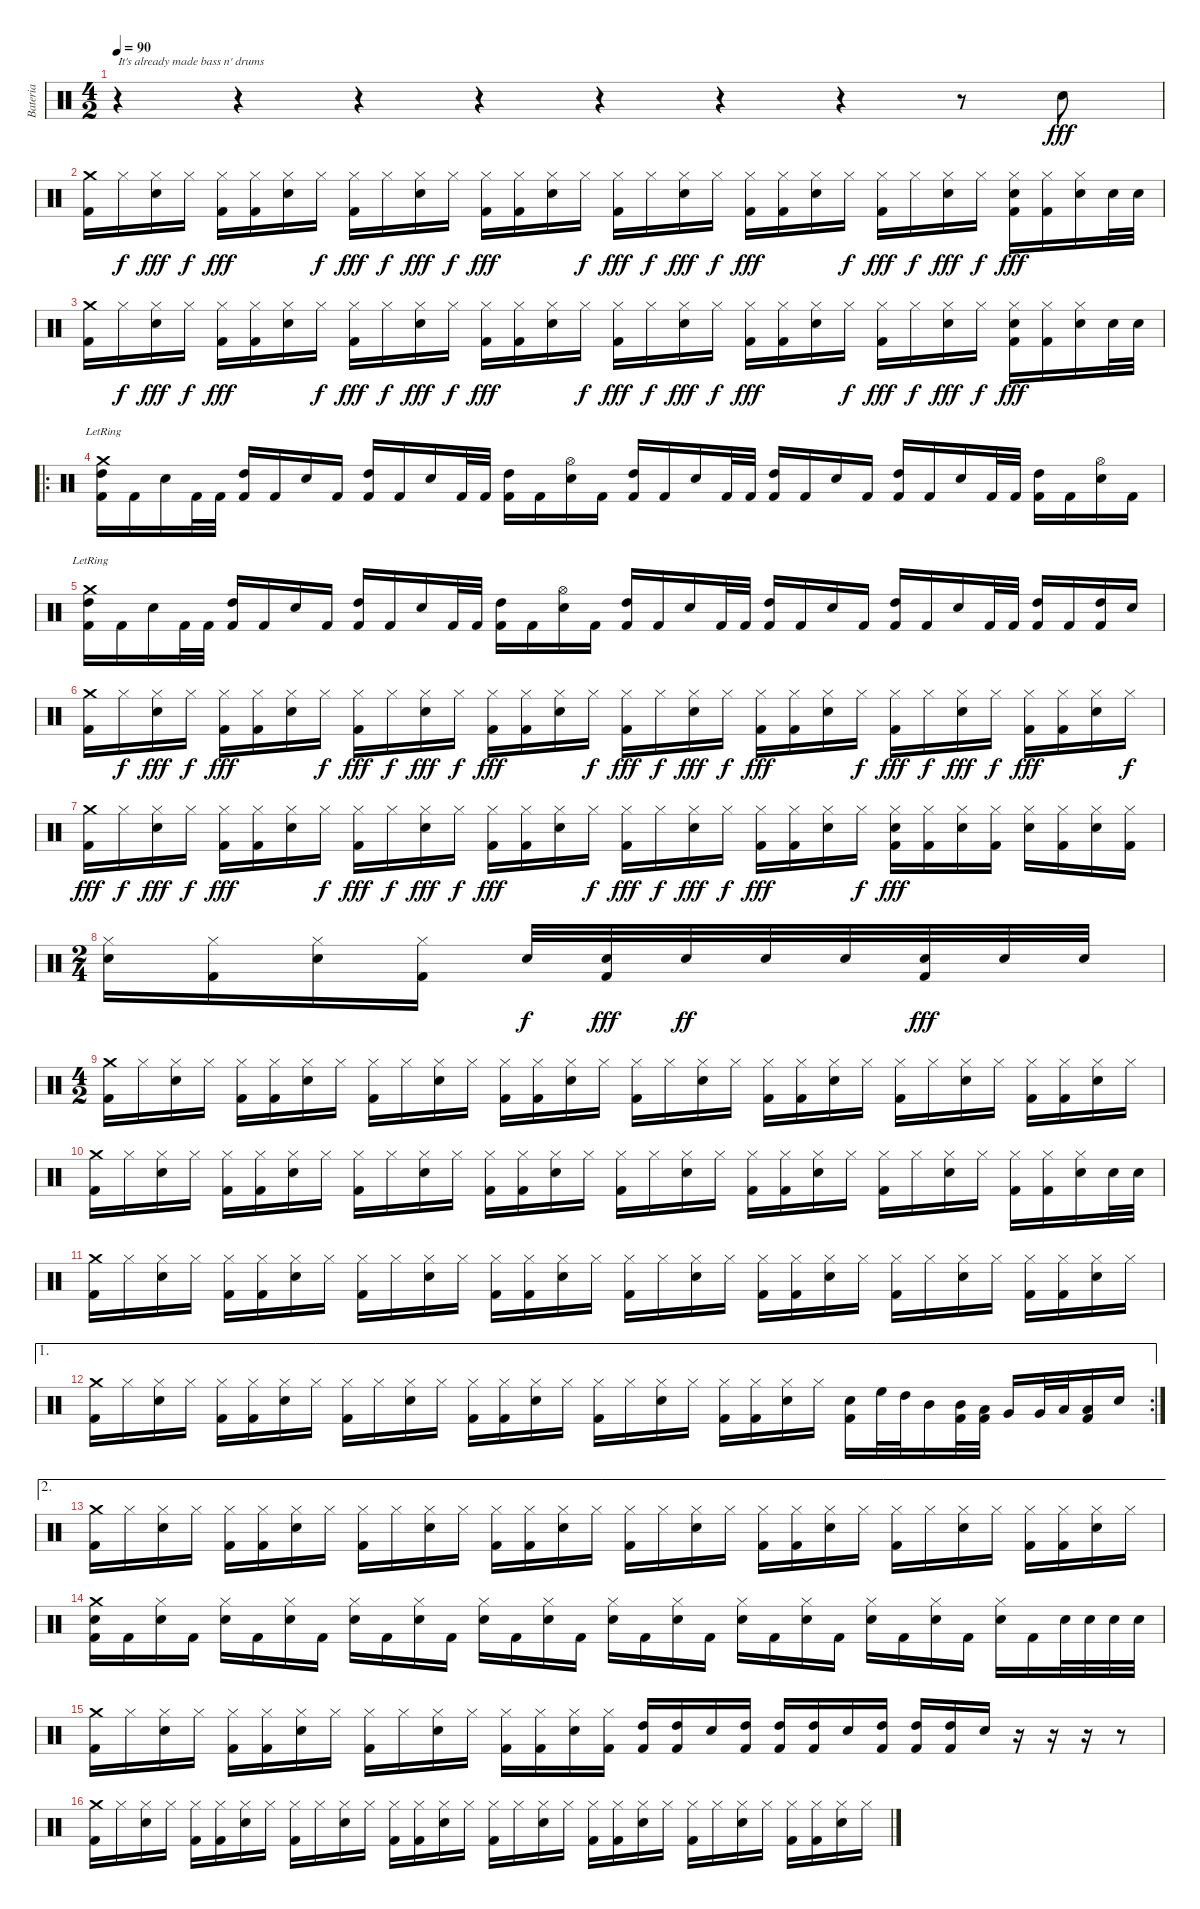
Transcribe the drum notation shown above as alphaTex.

\track ("Bateria" "Bateria") {instrument percussion}
\staff {score}
\articulation defaults
\ts (4 2)
\tempo 90
\clef neutral
\ks c
r.4{txt "It's already made bass n' drums" dy fff} r.4 r.4 r.4 r.4 r.4 r.4 r.8 "Electric Snare (hit)".8 |
("Crash medium (hit)" "Kick (hit) 2").16 "Hi-Hat (closed)".16{dy f} ("Hi-Hat (closed)" "Electric Snare (hit)").16{dy fff} "Hi-Hat (closed)".16{dy f} ("Hi-Hat (closed)" "Kick (hit) 2").16{dy fff} ("Hi-Hat (closed)" "Kick (hit) 2").16 ("Hi-Hat (closed)" "Electric Snare (hit)").16 "Hi-Hat (closed)".16{dy f} ("Hi-Hat (closed)" "Kick (hit) 2").16{dy fff} "Hi-Hat (closed)".16{dy f} ("Hi-Hat (closed)" "Electric Snare (hit)").16{dy fff} "Hi-Hat (closed)".16{dy f} ("Hi-Hat (closed)" "Kick (hit) 2").16{dy fff} ("Hi-Hat (closed)" "Kick (hit) 2").16 ("Hi-Hat (closed)" "Electric Snare (hit)").16 "Hi-Hat (closed)".16{dy f} ("Hi-Hat (closed)" "Kick (hit) 2").16{dy fff} "Hi-Hat (closed)".16{dy f} ("Hi-Hat (closed)" "Electric Snare (hit)").16{dy fff} "Hi-Hat (closed)".16{dy f} ("Hi-Hat (closed)" "Kick (hit) 2").16{dy fff} ("Hi-Hat (closed)" "Kick (hit) 2").16 ("Hi-Hat (closed)" "Electric Snare (hit)").16 "Hi-Hat (closed)".16{dy f} ("Hi-Hat (closed)" "Kick (hit) 2").16{dy fff} "Hi-Hat (closed)".16{dy f} ("Hi-Hat (closed)" "Electric Snare (hit)").16{dy fff} "Hi-Hat (closed)".16{dy f} ("Hi-Hat (closed)" "Electric Snare (hit)" "Kick (hit) 2").16{dy fff} ("Hi-Hat (closed)" "Kick (hit) 2").16 ("Hi-Hat (closed)" "Electric Snare (hit)").16 "Electric Snare (hit)".32 "Electric Snare (hit)".32 |
("Crash medium (hit)" "Kick (hit) 2").16 "Hi-Hat (closed)".16{dy f} ("Hi-Hat (closed)" "Electric Snare (hit)").16{dy fff} "Hi-Hat (closed)".16{dy f} ("Hi-Hat (closed)" "Kick (hit) 2").16{dy fff} ("Hi-Hat (closed)" "Kick (hit) 2").16 ("Hi-Hat (closed)" "Electric Snare (hit)").16 "Hi-Hat (closed)".16{dy f} ("Hi-Hat (closed)" "Kick (hit) 2").16{dy fff} "Hi-Hat (closed)".16{dy f} ("Hi-Hat (closed)" "Electric Snare (hit)").16{dy fff} "Hi-Hat (closed)".16{dy f} ("Hi-Hat (closed)" "Kick (hit) 2").16{dy fff} ("Hi-Hat (closed)" "Kick (hit) 2").16 ("Hi-Hat (closed)" "Electric Snare (hit)").16 "Hi-Hat (closed)".16{dy f} ("Hi-Hat (closed)" "Kick (hit) 2").16{dy fff} "Hi-Hat (closed)".16{dy f} ("Hi-Hat (closed)" "Electric Snare (hit)").16{dy fff} "Hi-Hat (closed)".16{dy f} ("Hi-Hat (closed)" "Kick (hit) 2").16{dy fff} ("Hi-Hat (closed)" "Kick (hit) 2").16 ("Hi-Hat (closed)" "Electric Snare (hit)").16 "Hi-Hat (closed)".16{dy f} ("Hi-Hat (closed)" "Kick (hit) 2").16{dy fff} "Hi-Hat (closed)".16{dy f} ("Hi-Hat (closed)" "Electric Snare (hit)").16{dy fff} "Hi-Hat (closed)".16{dy f} ("Hi-Hat (closed)" "Electric Snare (hit)" "Kick (hit) 2").16{dy fff} ("Hi-Hat (closed)" "Kick (hit) 2").16 ("Hi-Hat (closed)" "Electric Snare (hit)").16 "Electric Snare (hit)".32 "Electric Snare (hit)".32 |
\ro
("Crash medium (hit)"{lr} "High Tom (hit)" "Kick (hit) 2").16 "Kick (hit) 2".16 "Electric Snare (hit)".16 "Kick (hit) 2".32 "Kick (hit) 2".32 ("High Tom (hit)" "Kick (hit) 2").16 "Kick (hit) 2".16 "Electric Snare (hit)".16 "Kick (hit) 2".16 ("High Tom (hit)" "Kick (hit) 2").16 "Kick (hit) 2".16 "Electric Snare (hit)".16 "Kick (hit) 2".32 "Kick (hit) 2".32 ("High Tom (hit)" "Kick (hit) 2").16 "Kick (hit) 2".16 ("Hi-Hat (open)" "Electric Snare (hit)").16 "Kick (hit) 2".16 ("High Tom (hit)" "Kick (hit) 2").16 "Kick (hit) 2".16 "Electric Snare (hit)".16 "Kick (hit) 2".32 "Kick (hit) 2".32 ("High Tom (hit)" "Kick (hit) 2").16 "Kick (hit) 2".16 "Electric Snare (hit)".16 "Kick (hit) 2".16 ("High Tom (hit)" "Kick (hit) 2").16 "Kick (hit) 2".16 "Electric Snare (hit)".16 "Kick (hit) 2".32 "Kick (hit) 2".32 ("High Tom (hit)" "Kick (hit) 2").16 "Kick (hit) 2".16 ("Hi-Hat (open)" "Electric Snare (hit)").16 "Kick (hit) 2".16 |
("Crash medium (hit)"{lr} "High Tom (hit)" "Kick (hit) 2").16 "Kick (hit) 2".16 "Electric Snare (hit)".16 "Kick (hit) 2".32 "Kick (hit) 2".32 ("High Tom (hit)" "Kick (hit) 2").16 "Kick (hit) 2".16 "Electric Snare (hit)".16 "Kick (hit) 2".16 ("High Tom (hit)" "Kick (hit) 2").16 "Kick (hit) 2".16 "Electric Snare (hit)".16 "Kick (hit) 2".32 "Kick (hit) 2".32 ("High Tom (hit)" "Kick (hit) 2").16 "Kick (hit) 2".16 ("Hi-Hat (open)" "Electric Snare (hit)").16 "Kick (hit) 2".16 ("High Tom (hit)" "Kick (hit) 2").16 "Kick (hit) 2".16 "Electric Snare (hit)".16 "Kick (hit) 2".32 "Kick (hit) 2".32 ("High Tom (hit)" "Kick (hit) 2").16 "Kick (hit) 2".16 "Electric Snare (hit)".16 "Kick (hit) 2".16 ("High Tom (hit)" "Kick (hit) 2").16 "Kick (hit) 2".16 "Electric Snare (hit)".16 "Kick (hit) 2".32 "Kick (hit) 2".32 ("High Tom (hit)" "Kick (hit) 2").16 "Kick (hit) 2".16 ("High Tom (hit)" "Kick (hit) 2").16 "Electric Snare (hit)".16 |
("Crash medium (hit)" "Kick (hit) 2").16 "Hi-Hat (closed)".16{dy f} ("Hi-Hat (closed)" "Electric Snare (hit)").16{dy fff} "Hi-Hat (closed)".16{dy f} ("Hi-Hat (closed)" "Kick (hit) 2").16{dy fff} ("Hi-Hat (closed)" "Kick (hit) 2").16 ("Hi-Hat (closed)" "Electric Snare (hit)").16 "Hi-Hat (closed)".16{dy f} ("Hi-Hat (closed)" "Kick (hit) 2").16{dy fff} "Hi-Hat (closed)".16{dy f} ("Hi-Hat (closed)" "Electric Snare (hit)").16{dy fff} "Hi-Hat (closed)".16{dy f} ("Hi-Hat (closed)" "Kick (hit) 2").16{dy fff} ("Hi-Hat (closed)" "Kick (hit) 2").16 ("Hi-Hat (closed)" "Electric Snare (hit)").16 "Hi-Hat (closed)".16{dy f} ("Hi-Hat (closed)" "Kick (hit) 2").16{dy fff} "Hi-Hat (closed)".16{dy f} ("Hi-Hat (closed)" "Electric Snare (hit)").16{dy fff} "Hi-Hat (closed)".16{dy f} ("Hi-Hat (closed)" "Kick (hit) 2").16{dy fff} ("Hi-Hat (closed)" "Kick (hit) 2").16 ("Hi-Hat (closed)" "Electric Snare (hit)").16 "Hi-Hat (closed)".16{dy f} ("Hi-Hat (closed)" "Kick (hit) 2").16{dy fff} "Hi-Hat (closed)".16{dy f} ("Hi-Hat (closed)" "Electric Snare (hit)").16{dy fff} "Hi-Hat (closed)".16{dy f} ("Hi-Hat (closed)" "Kick (hit) 2").16{dy fff} ("Hi-Hat (closed)" "Kick (hit) 2").16 ("Hi-Hat (closed)" "Electric Snare (hit)").16 "Hi-Hat (closed)".16{dy f} |
("Crash medium (hit)" "Kick (hit) 2").16{dy fff} "Hi-Hat (closed)".16{dy f} ("Hi-Hat (closed)" "Electric Snare (hit)").16{dy fff} "Hi-Hat (closed)".16{dy f} ("Hi-Hat (closed)" "Kick (hit) 2").16{dy fff} ("Hi-Hat (closed)" "Kick (hit) 2").16 ("Hi-Hat (closed)" "Electric Snare (hit)").16 "Hi-Hat (closed)".16{dy f} ("Hi-Hat (closed)" "Kick (hit) 2").16{dy fff} "Hi-Hat (closed)".16{dy f} ("Hi-Hat (closed)" "Electric Snare (hit)").16{dy fff} "Hi-Hat (closed)".16{dy f} ("Hi-Hat (closed)" "Kick (hit) 2").16{dy fff} ("Hi-Hat (closed)" "Kick (hit) 2").16 ("Hi-Hat (closed)" "Electric Snare (hit)").16 "Hi-Hat (closed)".16{dy f} ("Hi-Hat (closed)" "Kick (hit) 2").16{dy fff} "Hi-Hat (closed)".16{dy f} ("Hi-Hat (closed)" "Electric Snare (hit)").16{dy fff} "Hi-Hat (closed)".16{dy f} ("Hi-Hat (closed)" "Kick (hit) 2").16{dy fff} ("Hi-Hat (closed)" "Kick (hit) 2").16 ("Hi-Hat (closed)" "Electric Snare (hit)").16 "Hi-Hat (closed)".16{dy f} ("Hi-Hat (closed)" "Electric Snare (hit)" "Kick (hit) 2").16{dy fff} ("Hi-Hat (closed)" "Kick (hit) 2").16 ("Hi-Hat (closed)" "Electric Snare (hit)").16 ("Hi-Hat (closed)" "Kick (hit) 2").16 ("Hi-Hat (closed)" "Electric Snare (hit)").16 ("Hi-Hat (closed)" "Kick (hit) 2").16 ("Hi-Hat (closed)" "Electric Snare (hit)").16 ("Hi-Hat (closed)" "Kick (hit) 2").16 |
\ts (2 4)
("Hi-Hat (closed)" "Electric Snare (hit)").16 ("Hi-Hat (closed)" "Kick (hit) 2").16 ("Hi-Hat (closed)" "Electric Snare (hit)").16 ("Hi-Hat (closed)" "Kick (hit) 2").16 "Electric Snare (hit)".32{dy f} ("Electric Snare (hit)" "Kick (hit) 2").32{dy fff} "Electric Snare (hit)".32{dy ff} "Electric Snare (hit)".32 "Electric Snare (hit)".32 ("Electric Snare (hit)" "Kick (hit) 2").32{dy fff} "Electric Snare (hit)".32 "Electric Snare (hit)".32 |
\ts (4 2)
("Crash medium (hit)" "Kick (hit) 2").16 "Hi-Hat (closed)".16 ("Hi-Hat (closed)" "Electric Snare (hit)").16 "Hi-Hat (closed)".16 ("Hi-Hat (closed)" "Kick (hit) 2").16 ("Hi-Hat (closed)" "Kick (hit) 2").16 ("Hi-Hat (closed)" "Electric Snare (hit)").16 "Hi-Hat (closed)".16 ("Hi-Hat (closed)" "Kick (hit) 2").16 "Hi-Hat (closed)".16 ("Hi-Hat (closed)" "Electric Snare (hit)").16 "Hi-Hat (closed)".16 ("Hi-Hat (closed)" "Kick (hit) 2").16 ("Hi-Hat (closed)" "Kick (hit) 2").16 ("Hi-Hat (closed)" "Electric Snare (hit)").16 "Hi-Hat (closed)".16 ("Hi-Hat (closed)" "Kick (hit) 2").16 "Hi-Hat (closed)".16 ("Hi-Hat (closed)" "Electric Snare (hit)").16 "Hi-Hat (closed)".16 ("Hi-Hat (closed)" "Kick (hit) 2").16 ("Hi-Hat (closed)" "Kick (hit) 2").16 ("Hi-Hat (closed)" "Electric Snare (hit)").16 "Hi-Hat (closed)".16 ("Hi-Hat (closed)" "Kick (hit) 2").16 "Hi-Hat (closed)".16 ("Hi-Hat (closed)" "Electric Snare (hit)").16 "Hi-Hat (closed)".16 ("Hi-Hat (closed)" "Kick (hit) 2").16 ("Hi-Hat (closed)" "Kick (hit) 2").16 ("Hi-Hat (closed)" "Electric Snare (hit)").16 "Hi-Hat (closed)".16 |
("Crash medium (hit)" "Kick (hit) 2").16 "Hi-Hat (closed)".16 ("Hi-Hat (closed)" "Electric Snare (hit)").16 "Hi-Hat (closed)".16 ("Hi-Hat (closed)" "Kick (hit) 2").16 ("Hi-Hat (closed)" "Kick (hit) 2").16 ("Hi-Hat (closed)" "Electric Snare (hit)").16 "Hi-Hat (closed)".16 ("Hi-Hat (closed)" "Kick (hit) 2").16 "Hi-Hat (closed)".16 ("Hi-Hat (closed)" "Electric Snare (hit)").16 "Hi-Hat (closed)".16 ("Hi-Hat (closed)" "Kick (hit) 2").16 ("Hi-Hat (closed)" "Kick (hit) 2").16 ("Hi-Hat (closed)" "Electric Snare (hit)").16 "Hi-Hat (closed)".16 ("Hi-Hat (closed)" "Kick (hit) 2").16 "Hi-Hat (closed)".16 ("Hi-Hat (closed)" "Electric Snare (hit)").16 "Hi-Hat (closed)".16 ("Hi-Hat (closed)" "Kick (hit) 2").16 ("Hi-Hat (closed)" "Kick (hit) 2").16 ("Hi-Hat (closed)" "Electric Snare (hit)").16 "Hi-Hat (closed)".16 ("Hi-Hat (closed)" "Kick (hit) 2").16 "Hi-Hat (closed)".16 ("Hi-Hat (closed)" "Electric Snare (hit)").16 "Hi-Hat (closed)".16 ("Hi-Hat (closed)" "Kick (hit) 2").16 ("Hi-Hat (closed)" "Kick (hit) 2").16 ("Hi-Hat (closed)" "Electric Snare (hit)").16 "Electric Snare (hit)".32 "Electric Snare (hit)".32 |
("Crash medium (hit)" "Kick (hit) 2").16 "Hi-Hat (closed)".16 ("Hi-Hat (closed)" "Electric Snare (hit)").16 "Hi-Hat (closed)".16 ("Hi-Hat (closed)" "Kick (hit) 2").16 ("Hi-Hat (closed)" "Kick (hit) 2").16 ("Hi-Hat (closed)" "Electric Snare (hit)").16 "Hi-Hat (closed)".16 ("Hi-Hat (closed)" "Kick (hit) 2").16 "Hi-Hat (closed)".16 ("Hi-Hat (closed)" "Electric Snare (hit)").16 "Hi-Hat (closed)".16 ("Hi-Hat (closed)" "Kick (hit) 2").16 ("Hi-Hat (closed)" "Kick (hit) 2").16 ("Hi-Hat (closed)" "Electric Snare (hit)").16 "Hi-Hat (closed)".16 ("Hi-Hat (closed)" "Kick (hit) 2").16 "Hi-Hat (closed)".16 ("Hi-Hat (closed)" "Electric Snare (hit)").16 "Hi-Hat (closed)".16 ("Hi-Hat (closed)" "Kick (hit) 2").16 ("Hi-Hat (closed)" "Kick (hit) 2").16 ("Hi-Hat (closed)" "Electric Snare (hit)").16 "Hi-Hat (closed)".16 ("Hi-Hat (closed)" "Kick (hit) 2").16 "Hi-Hat (closed)".16 ("Hi-Hat (closed)" "Electric Snare (hit)").16 "Hi-Hat (closed)".16 ("Hi-Hat (closed)" "Kick (hit) 2").16 ("Hi-Hat (closed)" "Kick (hit) 2").16 ("Hi-Hat (closed)" "Electric Snare (hit)").16 "Hi-Hat (closed)".16 |
\ae 1
\rc 2
("Crash medium (hit)" "Kick (hit) 2").16 "Hi-Hat (closed)".16 ("Hi-Hat (closed)" "Electric Snare (hit)").16 "Hi-Hat (closed)".16 ("Hi-Hat (closed)" "Kick (hit) 2").16 ("Hi-Hat (closed)" "Kick (hit) 2").16 ("Hi-Hat (closed)" "Electric Snare (hit)").16 "Hi-Hat (closed)".16 ("Hi-Hat (closed)" "Kick (hit) 2").16 "Hi-Hat (closed)".16 ("Hi-Hat (closed)" "Electric Snare (hit)").16 "Hi-Hat (closed)".16 ("Hi-Hat (closed)" "Kick (hit) 2").16 ("Hi-Hat (closed)" "Kick (hit) 2").16 ("Hi-Hat (closed)" "Electric Snare (hit)").16 "Hi-Hat (closed)".16 ("Hi-Hat (closed)" "Kick (hit) 2").16 "Hi-Hat (closed)".16 ("Hi-Hat (closed)" "Electric Snare (hit)").16 "Hi-Hat (closed)".16 ("Hi-Hat (closed)" "Kick (hit) 2").16 ("Hi-Hat (closed)" "Kick (hit) 2").16 ("Hi-Hat (closed)" "Electric Snare (hit)").16 "Hi-Hat (closed)".16 ("Electric Snare (hit)" "Kick (hit) 2").16 "High Floor Tom (hit)".32 "High Tom (hit)".32 "Mid Tom (hit)".16 ("Mid Tom (hit)" "Kick (hit) 2").32 ("Low Tom (hit)" "Kick (hit) 2").32 "Very Low Tom (hit)".16 "Very Low Tom (hit)".32 "Low Floor Tom (hit)".32 ("Low Floor Tom (hit)" "Kick (hit) 2").16 "Electric Snare (hit)".16 |
\ae 2
("Crash medium (hit)" "Kick (hit) 2").16 "Hi-Hat (closed)".16 ("Hi-Hat (closed)" "Electric Snare (hit)").16 "Hi-Hat (closed)".16 ("Hi-Hat (closed)" "Kick (hit) 2").16 ("Hi-Hat (closed)" "Kick (hit) 2").16 ("Hi-Hat (closed)" "Electric Snare (hit)").16 "Hi-Hat (closed)".16 ("Hi-Hat (closed)" "Kick (hit) 2").16 "Hi-Hat (closed)".16 ("Hi-Hat (closed)" "Electric Snare (hit)").16 "Hi-Hat (closed)".16 ("Hi-Hat (closed)" "Kick (hit) 2").16 ("Hi-Hat (closed)" "Kick (hit) 2").16 ("Hi-Hat (closed)" "Electric Snare (hit)").16 "Hi-Hat (closed)".16 ("Hi-Hat (closed)" "Kick (hit) 2").16 "Hi-Hat (closed)".16 ("Hi-Hat (closed)" "Electric Snare (hit)").16 "Hi-Hat (closed)".16 ("Hi-Hat (closed)" "Kick (hit) 2").16 ("Hi-Hat (closed)" "Kick (hit) 2").16 ("Hi-Hat (closed)" "Electric Snare (hit)").16 "Hi-Hat (closed)".16 ("Hi-Hat (closed)" "Kick (hit) 2").16 "Hi-Hat (closed)".16 ("Hi-Hat (closed)" "Electric Snare (hit)").16 "Hi-Hat (closed)".16 ("Hi-Hat (closed)" "Kick (hit) 2").16 ("Hi-Hat (closed)" "Kick (hit) 2").16 ("Hi-Hat (closed)" "Electric Snare (hit)").16 "Hi-Hat (closed)".16 |
("Crash medium (hit)" "Electric Snare (hit)" "Kick (hit) 2").16 "Kick (hit) 2".16 ("Hi-Hat (closed)" "Electric Snare (hit)").16 "Kick (hit) 2".16 ("Hi-Hat (closed)" "Electric Snare (hit)").16 "Kick (hit) 2".16 ("Hi-Hat (closed)" "Electric Snare (hit)").16 "Kick (hit) 2".16 ("Hi-Hat (closed)" "Electric Snare (hit)").16 "Kick (hit) 2".16 ("Hi-Hat (closed)" "Electric Snare (hit)").16 "Kick (hit) 2".16 ("Hi-Hat (closed)" "Electric Snare (hit)").16 "Kick (hit) 2".16 ("Hi-Hat (closed)" "Electric Snare (hit)").16 "Kick (hit) 2".16 ("Hi-Hat (closed)" "Electric Snare (hit)").16 "Kick (hit) 2".16 ("Hi-Hat (closed)" "Electric Snare (hit)").16 "Kick (hit) 2".16 ("Hi-Hat (closed)" "Electric Snare (hit)").16 "Kick (hit) 2".16 ("Hi-Hat (closed)" "Electric Snare (hit)").16 "Kick (hit) 2".16 ("Hi-Hat (closed)" "Electric Snare (hit)").16 "Kick (hit) 2".16 ("Hi-Hat (closed)" "Electric Snare (hit)").16 "Kick (hit) 2".16 ("Hi-Hat (closed)" "Electric Snare (hit)").16 "Kick (hit) 2".16 "Electric Snare (hit)".32 "Electric Snare (hit)".32 "Electric Snare (hit)".32 "Electric Snare (hit)".32 |
("Crash medium (hit)" "Kick (hit) 2").16 "Hi-Hat (closed)".16 ("Hi-Hat (closed)" "Electric Snare (hit)").16 "Hi-Hat (closed)".16 ("Hi-Hat (closed)" "Kick (hit) 2").16 ("Hi-Hat (closed)" "Kick (hit) 2").16 ("Hi-Hat (closed)" "Electric Snare (hit)").16 "Hi-Hat (closed)".16 ("Hi-Hat (closed)" "Kick (hit) 2").16 "Hi-Hat (closed)".16 ("Hi-Hat (closed)" "Electric Snare (hit)").16 "Hi-Hat (closed)".16 ("Hi-Hat (closed)" "Kick (hit) 2").16 ("Hi-Hat (closed)" "Kick (hit) 2").16 ("Hi-Hat (closed)" "Electric Snare (hit)").16 ("Hi-Hat (closed)" "Kick (hit) 2").16 ("High Tom (hit)" "Kick (hit) 2").16 ("High Tom (hit)" "Kick (hit) 2").16 "Electric Snare (hit)".16 ("High Tom (hit)" "Kick (hit) 2").16 ("High Tom (hit)" "Kick (hit) 2").16 ("High Tom (hit)" "Kick (hit) 2").16 "Electric Snare (hit)".16 ("High Tom (hit)" "Kick (hit) 2").16 ("High Tom (hit)" "Kick (hit) 2").16 ("High Tom (hit)" "Kick (hit) 2").16 "Electric Snare (hit)".16 r.16 r.16 r.16 r.8 |
("Crash medium (hit)" "Kick (hit) 2").16 "Hi-Hat (closed)".16 ("Hi-Hat (closed)" "Electric Snare (hit)").16 "Hi-Hat (closed)".16 ("Hi-Hat (closed)" "Kick (hit) 2").16 ("Hi-Hat (closed)" "Kick (hit) 2").16 ("Hi-Hat (closed)" "Electric Snare (hit)").16 "Hi-Hat (closed)".16 ("Hi-Hat (closed)" "Kick (hit) 2").16 "Hi-Hat (closed)".16 ("Hi-Hat (closed)" "Electric Snare (hit)").16 "Hi-Hat (closed)".16 ("Hi-Hat (closed)" "Kick (hit) 2").16 ("Hi-Hat (closed)" "Kick (hit) 2").16 ("Hi-Hat (closed)" "Electric Snare (hit)").16 "Hi-Hat (closed)".16 ("Hi-Hat (closed)" "Kick (hit) 2").16 "Hi-Hat (closed)".16 ("Hi-Hat (closed)" "Electric Snare (hit)").16 "Hi-Hat (closed)".16 ("Hi-Hat (closed)" "Kick (hit) 2").16 ("Hi-Hat (closed)" "Kick (hit) 2").16 ("Hi-Hat (closed)" "Electric Snare (hit)").16 "Hi-Hat (closed)".16 ("Hi-Hat (closed)" "Kick (hit) 2").16 "Hi-Hat (closed)".16 ("Hi-Hat (closed)" "Electric Snare (hit)").16 "Hi-Hat (closed)".16 ("Hi-Hat (closed)" "Kick (hit) 2").16 ("Hi-Hat (closed)" "Kick (hit) 2").16 ("Hi-Hat (closed)" "Electric Snare (hit)").16 "Hi-Hat (closed)".16
